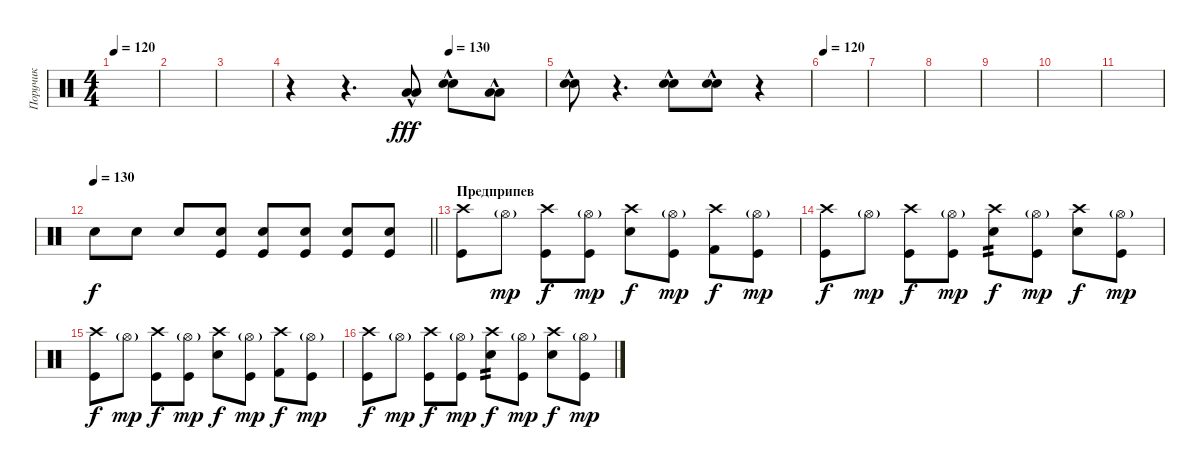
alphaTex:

\track ("Поручик" "Поручик") {instrument percussion}
\staff {score}
\articulation defaults
\ts (4 4)
\tempo 120
\clef neutral
\ks c
|
|
|
\tempo (130 0.625)
r.4 r.4{d} ("Low Floor Tom (hit)"{hac} "Low Floor Tom (hit)").8{dy fff} ("Snare (hit) 2"{hac} "Snare (hit) 2").8 ("Low Floor Tom (hit)"{hac} "Low Floor Tom (hit)").8 |
("Snare (hit) 2"{hac} "Snare (hit) 2").8 r.4{d} ("Snare (hit) 2"{hac} "Snare (hit) 2").8 ("Snare (hit) 2"{hac} "Snare (hit) 2").8 r.4 |
\tempo 120
|
|
|
|
|
|
\tempo 130
\barLineRight lightlight "Snare (hit) 2".8{dy f} "Snare (hit) 2".8 "Snare (hit) 2".8
("Snare (hit) 2" "Kick (hit)").8 ("Snare (hit) 2" "Kick (hit)").8 ("Snare (hit) 2" "Kick (hit)").8 ("Snare (hit) 2" "Kick (hit)").8 ("Snare (hit) 2" "Kick (hit)").8 |
\section ("" "Предприпев")
("Crash high (hit)" "Kick (hit)").8 "Hi-Hat (open)"{g}.8{dy mp} ("Crash high (hit)" "Kick (hit)").8{dy f} ("Hi-Hat (open)"{g} "Kick (hit)").8{dy mp} ("Electric Snare (hit)" "Crash high (hit)").8{dy f} ("Hi-Hat (open)"{g} "Kick (hit)").8{dy mp} ("Crash high (hit)" "Kick (hit) 2").8{dy f} ("Hi-Hat (open)"{g} "Kick (hit)").8{dy mp} |
("Crash high (hit)" "Kick (hit)").8{dy f} "Hi-Hat (open)"{g}.8{dy mp} ("Crash high (hit)" "Kick (hit)").8{dy f} ("Hi-Hat (open)"{g} "Kick (hit)").8{dy mp} ("Electric Snare (hit)" "Crash high (hit)").8{tp 2 dy f} ("Hi-Hat (open)"{g} "Kick (hit)").8{dy mp} ("Crash high (hit)" "Electric Snare (hit)").8{dy f} ("Hi-Hat (open)"{g} "Kick (hit)").8{dy mp} |
("Crash high (hit)" "Kick (hit)").8{dy f} "Hi-Hat (open)"{g}.8{dy mp} ("Crash high (hit)" "Kick (hit)").8{dy f} ("Hi-Hat (open)"{g} "Kick (hit)").8{dy mp} ("Electric Snare (hit)" "Crash high (hit)").8{dy f} ("Hi-Hat (open)"{g} "Kick (hit)").8{dy mp} ("Crash high (hit)" "Kick (hit) 2").8{dy f} ("Hi-Hat (open)"{g} "Kick (hit)").8{dy mp} |
("Crash high (hit)" "Kick (hit)").8{dy f} "Hi-Hat (open)"{g}.8{dy mp} ("Crash high (hit)" "Kick (hit)").8{dy f} ("Hi-Hat (open)"{g} "Kick (hit)").8{dy mp} ("Electric Snare (hit)" "Crash high (hit)").8{tp 2 dy f} ("Hi-Hat (open)"{g} "Kick (hit)").8{dy mp} ("Crash high (hit)" "Electric Snare (hit)").8{dy f} ("Hi-Hat (open)"{g} "Kick (hit)").8{dy mp}
